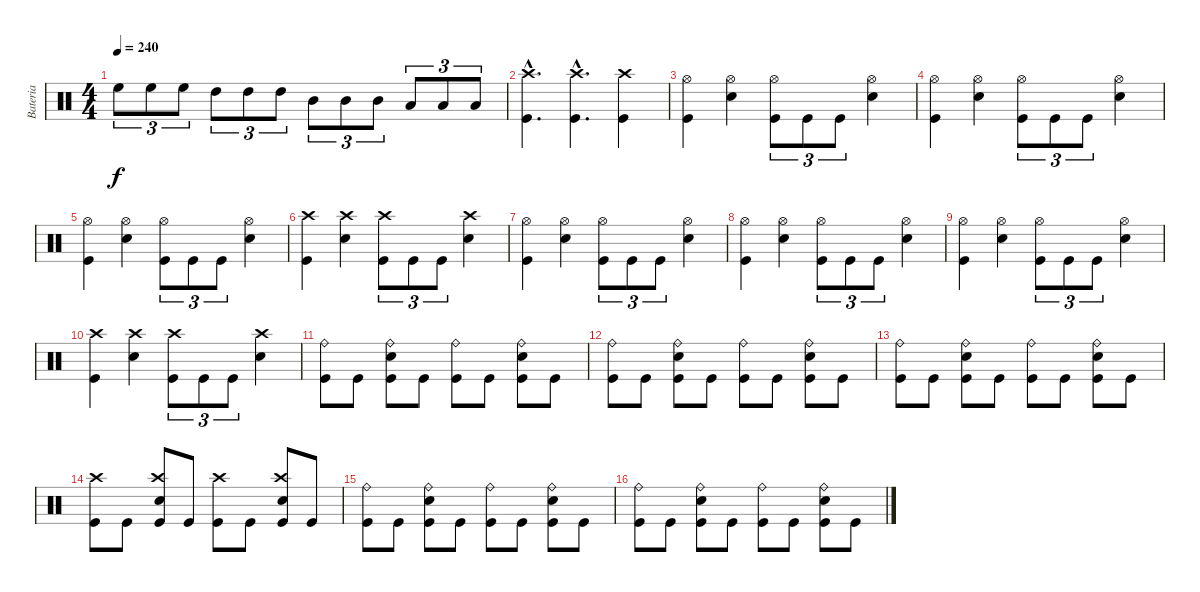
\track ("Bateria" "Bateria") {instrument percussion}
\staff {score}
\articulation defaults
\ts (4 4)
\tempo 240
\clef neutral
\ks c "High Floor Tom (hit)".8{tu (3 2) dy f} "High Floor Tom (hit)".8{tu (3 2)} "High Floor Tom (hit)".8{tu (3 2)} "High Tom (hit)".8{tu (3 2)} "High Tom (hit)".8{tu (3 2)} "High Tom (hit)".8{tu (3 2)} "Mid Tom (hit)".8{tu (3 2)} "Mid Tom (hit)".8{tu (3 2)} "Mid Tom (hit)".8{tu (3 2)} "Low Tom (hit)".8{tu (3 2)} "Low Tom (hit)".8{tu (3 2)} "Low Tom (hit)".8{tu (3 2)}
|
("Kick (hit)"{hac} "Crash high (hit)"{hac}).4{d} ("Kick (hit)"{hac} "Crash high (hit)"{hac}).4{d} ("Kick (hit)" "Crash high (hit)").4 |
("Kick (hit)" "Hi-Hat (open)").4 ("Electric Snare (hit)" "Hi-Hat (open)").4 ("Kick (hit)" "Hi-Hat (open)").8{tu (3 2)} "Kick (hit)".8{tu (3 2)} "Kick (hit)".8{tu (3 2)} ("Electric Snare (hit)" "Hi-Hat (open)").4 |
("Kick (hit)" "Hi-Hat (open)").4 ("Electric Snare (hit)" "Hi-Hat (open)").4 ("Kick (hit)" "Hi-Hat (open)").8{tu (3 2)} "Kick (hit)".8{tu (3 2)} "Kick (hit)".8{tu (3 2)} ("Electric Snare (hit)" "Hi-Hat (open)").4 |
("Kick (hit)" "Hi-Hat (open)").4 ("Electric Snare (hit)" "Hi-Hat (open)").4 ("Kick (hit)" "Hi-Hat (open)").8{tu (3 2)} "Kick (hit)".8{tu (3 2)} "Kick (hit)".8{tu (3 2)} ("Electric Snare (hit)" "Hi-Hat (open)").4 |
("Kick (hit)" "Crash high (hit)").4 ("Electric Snare (hit)" "Crash high (hit)").4 ("Kick (hit)" "Crash high (hit)").8{tu (3 2)} "Kick (hit)".8{tu (3 2)} "Kick (hit)".8{tu (3 2)} ("Electric Snare (hit)" "Crash high (hit)").4 |
("Kick (hit)" "Hi-Hat (open)").4 ("Electric Snare (hit)" "Hi-Hat (open)").4 ("Kick (hit)" "Hi-Hat (open)").8{tu (3 2)} "Kick (hit)".8{tu (3 2)} "Kick (hit)".8{tu (3 2)} ("Electric Snare (hit)" "Hi-Hat (open)").4 |
("Kick (hit)" "Hi-Hat (open)").4 ("Electric Snare (hit)" "Hi-Hat (open)").4 ("Kick (hit)" "Hi-Hat (open)").8{tu (3 2)} "Kick (hit)".8{tu (3 2)} "Kick (hit)".8{tu (3 2)} ("Electric Snare (hit)" "Hi-Hat (open)").4 |
("Kick (hit)" "Hi-Hat (open)").4 ("Electric Snare (hit)" "Hi-Hat (open)").4 ("Kick (hit)" "Hi-Hat (open)").8{tu (3 2)} "Kick (hit)".8{tu (3 2)} "Kick (hit)".8{tu (3 2)} ("Electric Snare (hit)" "Hi-Hat (open)").4 |
("Kick (hit)" "Crash high (hit)").4 ("Electric Snare (hit)" "Crash high (hit)").4 ("Kick (hit)" "Crash high (hit)").8{tu (3 2)} "Kick (hit)".8{tu (3 2)} "Kick (hit)".8{tu (3 2)} ("Electric Snare (hit)" "Crash high (hit)").4 |
("Kick (hit)" "Ride (bell)").8 "Kick (hit)".8 ("Kick (hit)" "Electric Snare (hit)" "Ride (bell)").8 "Kick (hit)".8 ("Kick (hit)" "Ride (bell)").8 "Kick (hit)".8 ("Kick (hit)" "Electric Snare (hit)" "Ride (bell)").8 "Kick (hit)".8 |
("Kick (hit)" "Ride (bell)").8 "Kick (hit)".8 ("Kick (hit)" "Electric Snare (hit)" "Ride (bell)").8 "Kick (hit)".8 ("Kick (hit)" "Ride (bell)").8 "Kick (hit)".8 ("Kick (hit)" "Electric Snare (hit)" "Ride (bell)").8 "Kick (hit)".8 |
("Kick (hit)" "Ride (bell)").8 "Kick (hit)".8 ("Kick (hit)" "Electric Snare (hit)" "Ride (bell)").8 "Kick (hit)".8 ("Kick (hit)" "Ride (bell)").8 "Kick (hit)".8 ("Kick (hit)" "Electric Snare (hit)" "Ride (bell)").8 "Kick (hit)".8 |
("Kick (hit)" "Crash high (hit)").8 "Kick (hit)".8 ("Kick (hit)" "Electric Snare (hit)" "Crash high (hit)").8 "Kick (hit)".8 ("Kick (hit)" "Crash high (hit)").8 "Kick (hit)".8 ("Kick (hit)" "Electric Snare (hit)" "Crash high (hit)").8 "Kick (hit)".8 |
("Kick (hit)" "Ride (bell)").8 "Kick (hit)".8 ("Kick (hit)" "Electric Snare (hit)" "Ride (bell)").8 "Kick (hit)".8 ("Kick (hit)" "Ride (bell)").8 "Kick (hit)".8 ("Kick (hit)" "Electric Snare (hit)" "Ride (bell)").8 "Kick (hit)".8 |
("Kick (hit)" "Ride (bell)").8 "Kick (hit)".8 ("Kick (hit)" "Electric Snare (hit)" "Ride (bell)").8 "Kick (hit)".8 ("Kick (hit)" "Ride (bell)").8 "Kick (hit)".8 ("Kick (hit)" "Electric Snare (hit)" "Ride (bell)").8 "Kick (hit)".8
